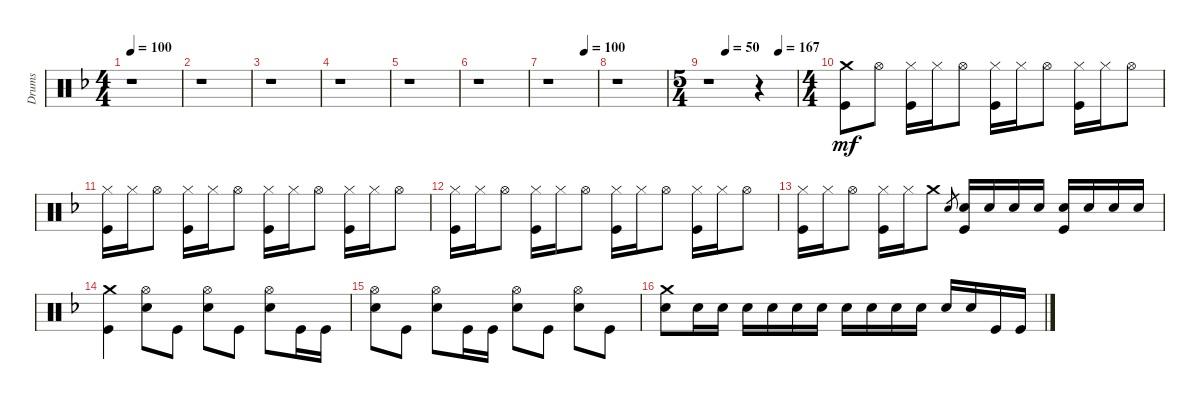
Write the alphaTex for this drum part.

\track ("Drums" "Drums") {instrument percussion}
\staff {score}
\articulation defaults
\ts (4 4)
\tempo 100
\clef neutral
\ks dminor
r.1{dy mf} |
r.1 |
r.1 |
r.1 |
r.1 |
r.1 |
\tempo (100 0.75)
r.1 |
r.1 |
\ts (5 4)
\tempo (50 0.2)
\tempo (167 0.8)
r.1 r.4 |
\ts (4 4)
("Kick (hit)" "Crash medium (hit)").8 "Hi-Hat (open)".8 ("Kick (hit)" "Hi-Hat (closed)").16 "Hi-Hat (closed)".16 "Hi-Hat (open)".8 ("Kick (hit)" "Hi-Hat (closed)").16 "Hi-Hat (closed)".16 "Hi-Hat (open)".8 ("Kick (hit)" "Hi-Hat (closed)").16 "Hi-Hat (closed)".16 "Hi-Hat (open)".8 |
("Kick (hit)" "Hi-Hat (closed)").16 "Hi-Hat (closed)".16 "Hi-Hat (open)".8 ("Kick (hit)" "Hi-Hat (closed)").16 "Hi-Hat (closed)".16 "Hi-Hat (open)".8 ("Kick (hit)" "Hi-Hat (closed)").16 "Hi-Hat (closed)".16 "Hi-Hat (open)".8 ("Kick (hit)" "Hi-Hat (closed)").16 "Hi-Hat (closed)".16 "Hi-Hat (open)".8 |
("Kick (hit)" "Hi-Hat (closed)").16 "Hi-Hat (closed)".16 "Hi-Hat (open)".8 ("Kick (hit)" "Hi-Hat (closed)").16 "Hi-Hat (closed)".16 "Hi-Hat (open)".8 ("Kick (hit)" "Hi-Hat (closed)").16 "Hi-Hat (closed)".16 "Hi-Hat (open)".8 ("Kick (hit)" "Hi-Hat (closed)").16 "Hi-Hat (closed)".16 "Hi-Hat (open)".8 |
("Kick (hit)" "Hi-Hat (closed)").16 "Hi-Hat (closed)".16 "Hi-Hat (open)".8 ("Hi-Hat (closed)" "Kick (hit)").16 "Hi-Hat (closed)".16 "Crash medium (hit)".8 "Snare (hit)".8{gr} ("Kick (hit)" "Snare (hit) 2").16 "Snare (hit) 2".16 "Snare (hit) 2".16 "Snare (hit) 2".16 ("Snare (hit) 2" "Kick (hit)").16 "Snare (hit) 2".16 "Snare (hit) 2".16 "Snare (hit) 2".16 |
("Crash medium (hit)" "Kick (hit)").4 ("Snare (hit) 2" "Hi-Hat (open)").8 "Kick (hit)".8 ("Hi-Hat (open)" "Snare (hit) 2").8 "Kick (hit)".8 ("Snare (hit) 2" "Hi-Hat (open)").8 "Kick (hit)".16 "Kick (hit)".16 |
("Hi-Hat (open)" "Snare (hit) 2").8 "Kick (hit)".8 ("Snare (hit) 2" "Hi-Hat (open)").8 "Kick (hit)".16 "Kick (hit)".16 ("Hi-Hat (open)" "Snare (hit) 2").8 "Kick (hit)".8 ("Hi-Hat (open)" "Snare (hit) 2").8 "Kick (hit)".8 |
("Snare (hit) 2" "Crash medium (hit)").8 "Snare (hit) 2".16 "Snare (hit) 2".16 "Snare (hit) 2".16 "Snare (hit) 2".16 "Snare (hit) 2".16 "Snare (hit) 2".16 "Snare (hit) 2".16 "Snare (hit) 2".16 "Snare (hit) 2".16 "Snare (hit) 2".16 "Snare (hit) 2".16 "Snare (hit) 2".16 "Kick (hit)".16 "Kick (hit)".16
